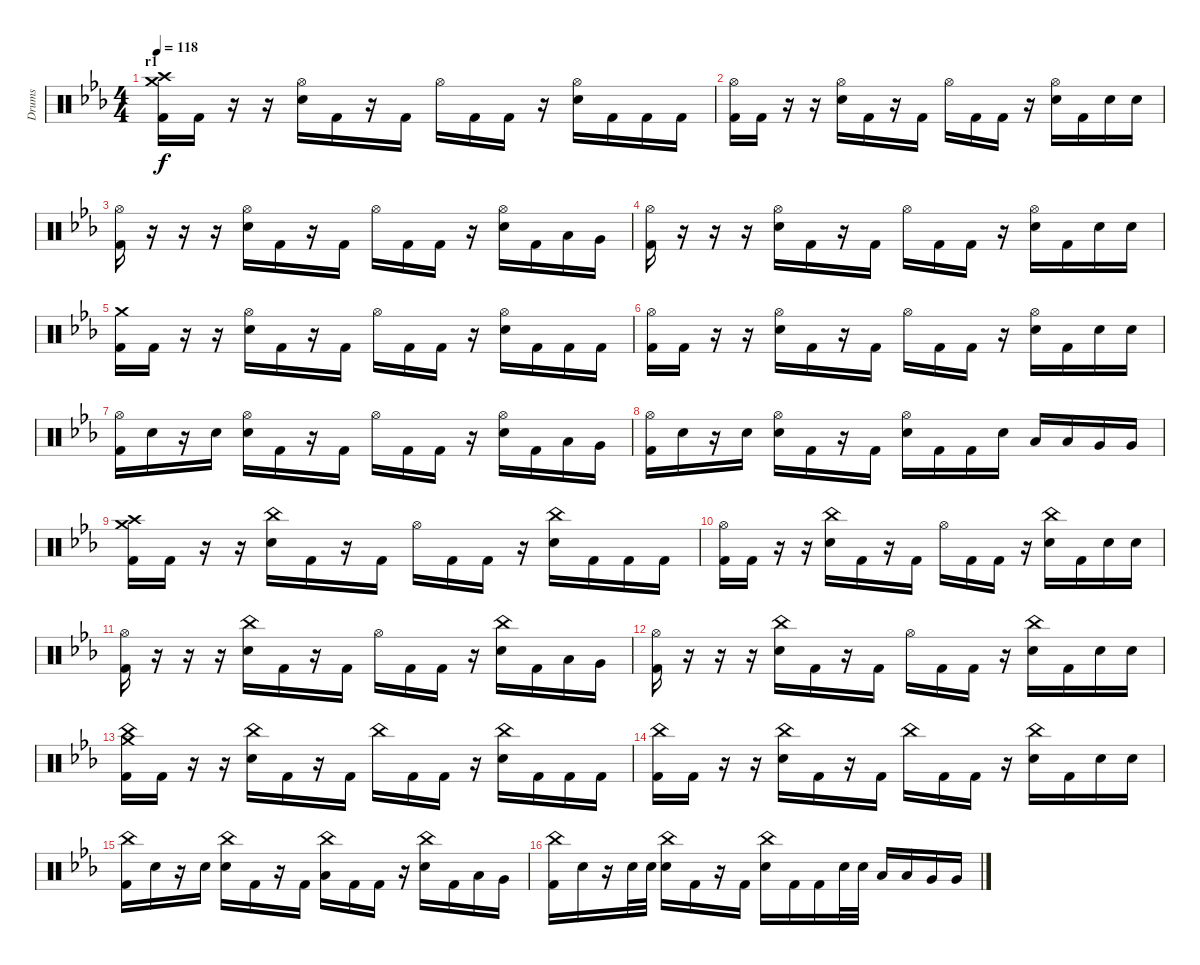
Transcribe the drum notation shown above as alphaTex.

\track ("Drums" "Drums") {instrument percussion}
\staff {score}
\articulation defaults
\ts (4 4)
\section ("" "r1")
\tempo 118
\clef neutral
\ks cminor
("Kick (hit) 2" "Crash medium (hit)" "Crash high (hit)").16{dy f} "Kick (hit) 2".16 r.16 r.16 ("Hi-Hat (open)" "Electric Snare (hit)").16 "Kick (hit) 2".16 r.16 "Kick (hit) 2".16 "Hi-Hat (open)".16 "Kick (hit) 2".16 "Kick (hit) 2".16 r.16 ("Hi-Hat (open)" "Electric Snare (hit)").16 "Kick (hit) 2".16 "Kick (hit) 2".16 "Kick (hit) 2".16 |
("Kick (hit) 2" "Hi-Hat (open)").16 "Kick (hit) 2".16 r.16 r.16 ("Hi-Hat (open)" "Electric Snare (hit)").16 "Kick (hit) 2".16 r.16 "Kick (hit) 2".16 "Hi-Hat (open)".16 "Kick (hit) 2".16 "Kick (hit) 2".16 r.16 ("Hi-Hat (open)" "Electric Snare (hit)").16 "Kick (hit) 2".16 "Electric Snare (hit)".16 "Electric Snare (hit)".16 |
("Kick (hit) 2" "Hi-Hat (open)").16 r.16 r.16 r.16 ("Hi-Hat (open)" "Electric Snare (hit)").16 "Kick (hit) 2".16 r.16 "Kick (hit) 2".16 "Hi-Hat (open)".16 "Kick (hit) 2".16 "Kick (hit) 2".16 r.16 ("Hi-Hat (open)" "Electric Snare (hit)").16 "Kick (hit) 2".16 "Low Tom (hit)".16 "Very Low Tom (hit)".16 |
("Kick (hit) 2" "Hi-Hat (open)").16 r.16 r.16 r.16 ("Hi-Hat (open)" "Electric Snare (hit)").16 "Kick (hit) 2".16 r.16 "Kick (hit) 2".16 "Hi-Hat (open)".16 "Kick (hit) 2".16 "Kick (hit) 2".16 r.16 ("Hi-Hat (open)" "Electric Snare (hit)").16 "Kick (hit) 2".16 "Electric Snare (hit)".16 "Electric Snare (hit)".16 |
("Kick (hit) 2" "Crash medium (hit)").16 "Kick (hit) 2".16 r.16 r.16 ("Hi-Hat (open)" "Electric Snare (hit)").16 "Kick (hit) 2".16 r.16 "Kick (hit) 2".16 "Hi-Hat (open)".16 "Kick (hit) 2".16 "Kick (hit) 2".16 r.16 ("Hi-Hat (open)" "Electric Snare (hit)").16 "Kick (hit) 2".16 "Kick (hit) 2".16 "Kick (hit) 2".16 |
("Kick (hit) 2" "Hi-Hat (open)").16 "Kick (hit) 2".16 r.16 r.16 ("Hi-Hat (open)" "Electric Snare (hit)").16 "Kick (hit) 2".16 r.16 "Kick (hit) 2".16 "Hi-Hat (open)".16 "Kick (hit) 2".16 "Kick (hit) 2".16 r.16 ("Hi-Hat (open)" "Electric Snare (hit)").16 "Kick (hit) 2".16 "Electric Snare (hit)".16 "Electric Snare (hit)".16 |
("Kick (hit) 2" "Hi-Hat (open)").16 "Electric Snare (hit)".16 r.16 "Electric Snare (hit)".16 ("Hi-Hat (open)" "Electric Snare (hit)").16 "Kick (hit) 2".16 r.16 "Kick (hit) 2".16 "Hi-Hat (open)".16 "Kick (hit) 2".16 "Kick (hit) 2".16 r.16 ("Hi-Hat (open)" "Electric Snare (hit)").16 "Kick (hit) 2".16 "Low Tom (hit)".16 "Very Low Tom (hit)".16 |
("Kick (hit) 2" "Hi-Hat (open)").16 "Electric Snare (hit)".16 r.16 "Electric Snare (hit)".16 ("Hi-Hat (open)" "Electric Snare (hit)").16 "Kick (hit) 2".16 r.16 "Kick (hit) 2".16 ("Hi-Hat (open)" "Electric Snare (hit)").16 "Kick (hit) 2".16 "Kick (hit) 2".16 "Electric Snare (hit)".16 "Low Tom (hit)".16 "Low Tom (hit)".16 "Very Low Tom (hit)".16 "Very Low Tom (hit)".16 |
("Kick (hit) 2" "Crash medium (hit)" "Crash high (hit)").16 "Kick (hit) 2".16 r.16 r.16 ("Electric Snare (hit)" "China (hit)").16 "Kick (hit) 2".16 r.16 "Kick (hit) 2".16 "Hi-Hat (open)".16 "Kick (hit) 2".16 "Kick (hit) 2".16 r.16 ("Electric Snare (hit)" "China (hit)").16 "Kick (hit) 2".16 "Kick (hit) 2".16 "Kick (hit) 2".16 |
("Kick (hit) 2" "Hi-Hat (open)").16 "Kick (hit) 2".16 r.16 r.16 ("Electric Snare (hit)" "China (hit)").16 "Kick (hit) 2".16 r.16 "Kick (hit) 2".16 "Hi-Hat (open)".16 "Kick (hit) 2".16 "Kick (hit) 2".16 r.16 ("Electric Snare (hit)" "China (hit)").16 "Kick (hit) 2".16 "Electric Snare (hit)".16 "Electric Snare (hit)".16 |
("Kick (hit) 2" "Hi-Hat (open)").16 r.16 r.16 r.16 ("Electric Snare (hit)" "China (hit)").16 "Kick (hit) 2".16 r.16 "Kick (hit) 2".16 "Hi-Hat (open)".16 "Kick (hit) 2".16 "Kick (hit) 2".16 r.16 ("Electric Snare (hit)" "China (hit)").16 "Kick (hit) 2".16 "Low Tom (hit)".16 "Very Low Tom (hit)".16 |
("Kick (hit) 2" "Hi-Hat (open)").16 r.16 r.16 r.16 ("Electric Snare (hit)" "China (hit)").16 "Kick (hit) 2".16 r.16 "Kick (hit) 2".16 "Hi-Hat (open)".16 "Kick (hit) 2".16 "Kick (hit) 2".16 r.16 ("Electric Snare (hit)" "China (hit)").16 "Kick (hit) 2".16 "Electric Snare (hit)".16 "Electric Snare (hit)".16 |
("Kick (hit) 2" "China (hit)" "Crash medium (hit)").16 "Kick (hit) 2".16 r.16 r.16 ("China (hit)" "Electric Snare (hit)").16 "Kick (hit) 2".16 r.16 "Kick (hit) 2".16 "China (hit)".16 "Kick (hit) 2".16 "Kick (hit) 2".16 r.16 ("China (hit)" "Electric Snare (hit)").16 "Kick (hit) 2".16 "Kick (hit) 2".16 "Kick (hit) 2".16 |
("Kick (hit) 2" "China (hit)").16 "Kick (hit) 2".16 r.16 r.16 ("China (hit)" "Electric Snare (hit)").16 "Kick (hit) 2".16 r.16 "Kick (hit) 2".16 "China (hit)".16 "Kick (hit) 2".16 "Kick (hit) 2".16 r.16 ("China (hit)" "Electric Snare (hit)").16 "Kick (hit) 2".16 "Electric Snare (hit)".16 "Electric Snare (hit)".16 |
("Kick (hit) 2" "China (hit)").16 "Electric Snare (hit)".16 r.16 "Electric Snare (hit)".16 ("China (hit)" "Electric Snare (hit)").16 "Kick (hit) 2".16 r.16 "Kick (hit) 2".16 ("China (hit)" "Low Floor Tom (hit)").16 "Kick (hit) 2".16 "Kick (hit) 2".16 r.16 ("China (hit)" "Electric Snare (hit)").16 "Kick (hit) 2".16 "Low Tom (hit)".16 "Very Low Tom (hit)".16 |
("Kick (hit) 2" "China (hit)").16 "Electric Snare (hit)".16 r.16 "Electric Snare (hit)".32 "Electric Snare (hit)".32 ("China (hit)" "Electric Snare (hit)").16 "Kick (hit) 2".16 r.16 "Kick (hit) 2".16 ("China (hit)" "Electric Snare (hit)").16 "Kick (hit) 2".16 "Kick (hit) 2".16 "Electric Snare (hit)".32 "Electric Snare (hit)".32 "Low Tom (hit)".16 "Low Tom (hit)".16 "Very Low Tom (hit)".16 "Very Low Tom (hit)".16
